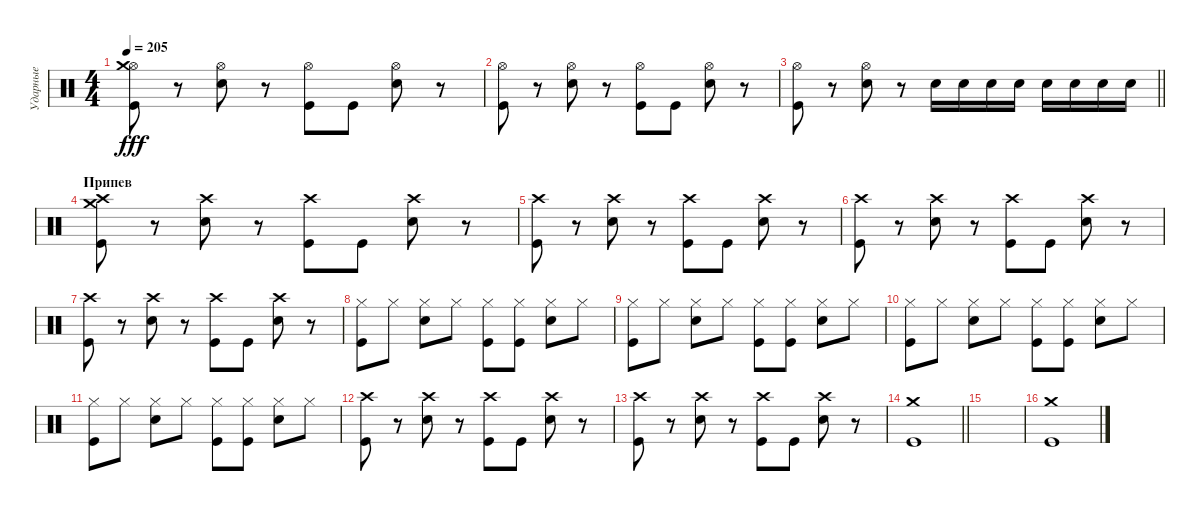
\track ("Ударные" "Ударные") {instrument percussion}
\staff {score}
\articulation defaults
\ts (4 4)
\tempo 205
\clef neutral
\ks c
("Hi-Hat (open)" "Kick (hit)" "Crash medium (hit)").8{dy fff} r.8 ("Hi-Hat (open)" "Electric Snare (hit)").8 r.8 ("Hi-Hat (open)" "Kick (hit)").8 "Kick (hit)".8 ("Hi-Hat (open)" "Electric Snare (hit)").8 r.8 |
("Hi-Hat (open)" "Kick (hit)").8 r.8 ("Hi-Hat (open)" "Electric Snare (hit)").8 r.8 ("Hi-Hat (open)" "Kick (hit)").8 "Kick (hit)".8 ("Hi-Hat (open)" "Electric Snare (hit)").8 r.8 |
\barLineRight lightlight
("Hi-Hat (open)" "Kick (hit)").8 r.8 ("Hi-Hat (open)" "Electric Snare (hit)").8 r.8 "Electric Snare (hit)".16 "Electric Snare (hit)".16 "Electric Snare (hit)".16 "Electric Snare (hit)".16 "Electric Snare (hit)".16 "Electric Snare (hit)".16 "Electric Snare (hit)".16 "Electric Snare (hit)".16 |
\section ("" "Припев")
("Crash medium (hit)" "Kick (hit)" "Crash high (hit)").8 r.8 ("Electric Snare (hit)" "Crash high (hit)").8 r.8 ("Kick (hit)" "Crash high (hit)").8 "Kick (hit)".8 ("Electric Snare (hit)" "Crash high (hit)").8 r.8 |
("Kick (hit)" "Crash high (hit)").8 r.8 ("Electric Snare (hit)" "Crash high (hit)").8 r.8 ("Kick (hit)" "Crash high (hit)").8 "Kick (hit)".8 ("Electric Snare (hit)" "Crash high (hit)").8 r.8 |
("Kick (hit)" "Crash high (hit)").8 r.8 ("Electric Snare (hit)" "Crash high (hit)").8 r.8 ("Kick (hit)" "Crash high (hit)").8 "Kick (hit)".8 ("Electric Snare (hit)" "Crash high (hit)").8 r.8 |
("Kick (hit)" "Crash high (hit)").8 r.8 ("Electric Snare (hit)" "Crash high (hit)").8 r.8 ("Kick (hit)" "Crash high (hit)").8 "Kick (hit)".8 ("Electric Snare (hit)" "Crash high (hit)").8 r.8 |
("Kick (hit)" "Hi-Hat (closed)").8 "Hi-Hat (closed)".8 ("Electric Snare (hit)" "Hi-Hat (closed)").8 "Hi-Hat (closed)".8 ("Kick (hit)" "Hi-Hat (closed)").8 ("Kick (hit)" "Hi-Hat (closed)").8 ("Electric Snare (hit)" "Hi-Hat (closed)").8 "Hi-Hat (closed)".8 |
("Kick (hit)" "Hi-Hat (closed)").8 "Hi-Hat (closed)".8 ("Electric Snare (hit)" "Hi-Hat (closed)").8 "Hi-Hat (closed)".8 ("Kick (hit)" "Hi-Hat (closed)").8 ("Kick (hit)" "Hi-Hat (closed)").8 ("Electric Snare (hit)" "Hi-Hat (closed)").8 "Hi-Hat (closed)".8 |
("Kick (hit)" "Hi-Hat (closed)").8 "Hi-Hat (closed)".8 ("Electric Snare (hit)" "Hi-Hat (closed)").8 "Hi-Hat (closed)".8 ("Kick (hit)" "Hi-Hat (closed)").8 ("Kick (hit)" "Hi-Hat (closed)").8 ("Electric Snare (hit)" "Hi-Hat (closed)").8 "Hi-Hat (closed)".8 |
("Kick (hit)" "Hi-Hat (closed)").8 "Hi-Hat (closed)".8 ("Electric Snare (hit)" "Hi-Hat (closed)").8 "Hi-Hat (closed)".8 ("Kick (hit)" "Hi-Hat (closed)").8 ("Kick (hit)" "Hi-Hat (closed)").8 ("Electric Snare (hit)" "Hi-Hat (closed)").8 "Hi-Hat (closed)".8 |
("Kick (hit)" "Crash high (hit)").8 r.8 ("Electric Snare (hit)" "Crash high (hit)").8 r.8 ("Kick (hit)" "Crash high (hit)").8 "Kick (hit)".8 ("Electric Snare (hit)" "Crash high (hit)").8 r.8 |
("Kick (hit)" "Crash high (hit)").8 r.8 ("Electric Snare (hit)" "Crash high (hit)").8 r.8 ("Kick (hit)" "Crash high (hit)").8 "Kick (hit)".8 ("Electric Snare (hit)" "Crash high (hit)").8 r.8 |
\barLineRight lightlight
("Crash medium (hit)" "Kick (hit)").1 |
|
("Crash medium (hit)" "Kick (hit)").1
